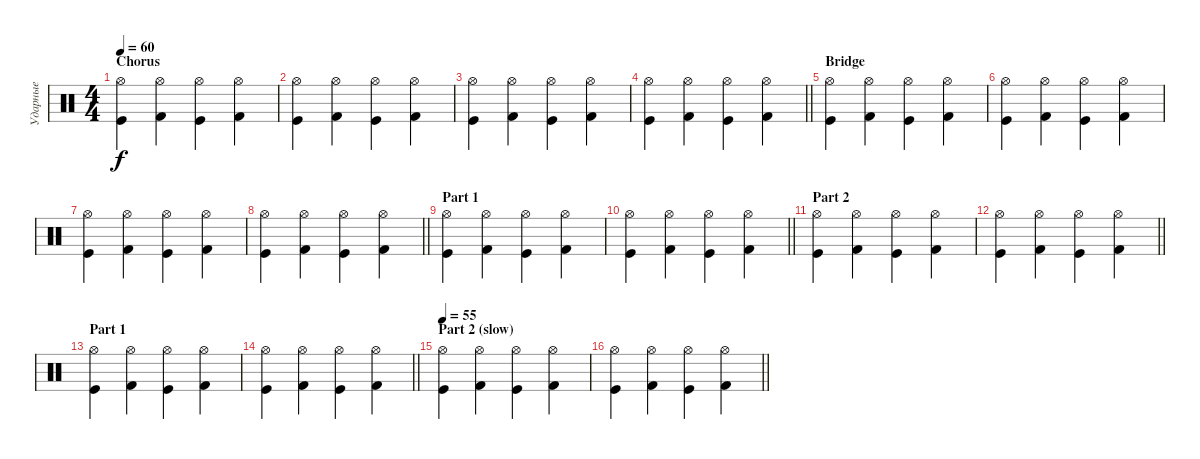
\track ("Ударные" "Ударные") {instrument percussion}
\staff {score}
\articulation defaults
\ts (4 4)
\section ("" "Chorus")
\tempo 60
\clef neutral
\ks c
("Hi-Hat (open)" "Kick (hit)").4{dy f} ("Hi-Hat (open)" "Kick (hit) 2").4 ("Hi-Hat (open)" "Kick (hit)").4 ("Hi-Hat (open)" "Kick (hit) 2").4 |
("Hi-Hat (open)" "Kick (hit)").4 ("Hi-Hat (open)" "Kick (hit) 2").4 ("Hi-Hat (open)" "Kick (hit)").4 ("Hi-Hat (open)" "Kick (hit) 2").4 |
("Hi-Hat (open)" "Kick (hit)").4 ("Hi-Hat (open)" "Kick (hit) 2").4 ("Hi-Hat (open)" "Kick (hit)").4 ("Hi-Hat (open)" "Kick (hit) 2").4 |
\barLineRight lightlight
("Hi-Hat (open)" "Kick (hit)").4 ("Hi-Hat (open)" "Kick (hit) 2").4 ("Hi-Hat (open)" "Kick (hit)").4 ("Hi-Hat (open)" "Kick (hit) 2").4 |
\section ("" "Bridge")
("Hi-Hat (open)" "Kick (hit)").4 ("Hi-Hat (open)" "Kick (hit) 2").4 ("Hi-Hat (open)" "Kick (hit)").4 ("Hi-Hat (open)" "Kick (hit) 2").4 |
("Hi-Hat (open)" "Kick (hit)").4 ("Hi-Hat (open)" "Kick (hit) 2").4 ("Hi-Hat (open)" "Kick (hit)").4 ("Hi-Hat (open)" "Kick (hit) 2").4 |
("Hi-Hat (open)" "Kick (hit)").4 ("Hi-Hat (open)" "Kick (hit) 2").4 ("Hi-Hat (open)" "Kick (hit)").4 ("Hi-Hat (open)" "Kick (hit) 2").4 |
\barLineRight lightlight
("Hi-Hat (open)" "Kick (hit)").4 ("Hi-Hat (open)" "Kick (hit) 2").4 ("Hi-Hat (open)" "Kick (hit)").4 ("Hi-Hat (open)" "Kick (hit) 2").4 |
\section ("" "Part 1")
("Hi-Hat (open)" "Kick (hit)").4 ("Hi-Hat (open)" "Kick (hit) 2").4 ("Hi-Hat (open)" "Kick (hit)").4 ("Hi-Hat (open)" "Kick (hit) 2").4 |
\barLineRight lightlight
("Hi-Hat (open)" "Kick (hit)").4 ("Hi-Hat (open)" "Kick (hit) 2").4 ("Hi-Hat (open)" "Kick (hit)").4 ("Hi-Hat (open)" "Kick (hit) 2").4 |
\section ("" "Part 2 ")
("Hi-Hat (open)" "Kick (hit)").4 ("Hi-Hat (open)" "Kick (hit) 2").4 ("Hi-Hat (open)" "Kick (hit)").4 ("Hi-Hat (open)" "Kick (hit) 2").4 |
\barLineRight lightlight
("Hi-Hat (open)" "Kick (hit)").4 ("Hi-Hat (open)" "Kick (hit) 2").4 ("Hi-Hat (open)" "Kick (hit)").4 ("Hi-Hat (open)" "Kick (hit) 2").4 |
\section ("" "Part 1")
("Hi-Hat (open)" "Kick (hit)").4 ("Hi-Hat (open)" "Kick (hit) 2").4 ("Hi-Hat (open)" "Kick (hit)").4 ("Hi-Hat (open)" "Kick (hit) 2").4 |
\barLineRight lightlight
("Hi-Hat (open)" "Kick (hit)").4 ("Hi-Hat (open)" "Kick (hit) 2").4 ("Hi-Hat (open)" "Kick (hit)").4 ("Hi-Hat (open)" "Kick (hit) 2").4 |
\section ("" "Part 2 (slow)")
\tempo 55
("Hi-Hat (open)" "Kick (hit)").4 ("Hi-Hat (open)" "Kick (hit) 2").4 ("Hi-Hat (open)" "Kick (hit)").4 ("Hi-Hat (open)" "Kick (hit) 2").4 |
\barLineRight lightlight
("Hi-Hat (open)" "Kick (hit)").4 ("Hi-Hat (open)" "Kick (hit) 2").4 ("Hi-Hat (open)" "Kick (hit)").4 ("Hi-Hat (open)" "Kick (hit) 2").4
